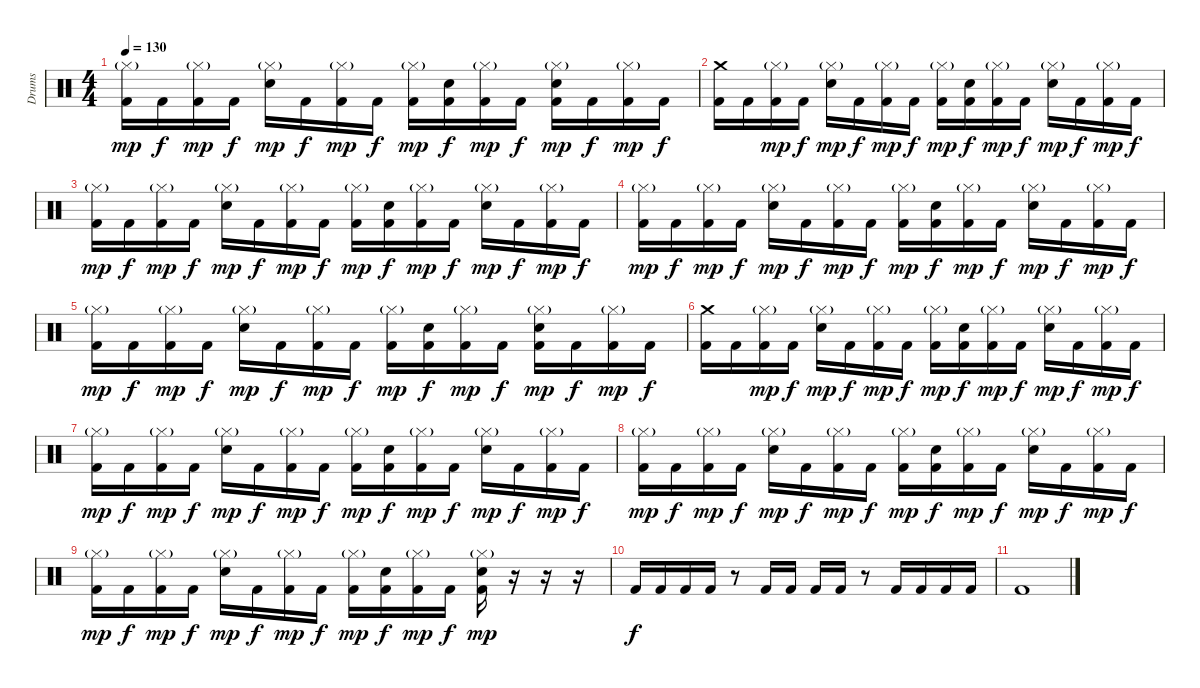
\track ("Drums" "Drums") {instrument percussion}
\staff {score}
\articulation defaults
\ts (4 4)
\tempo 130
\clef neutral
\ks c
("Hi-Hat (closed)"{g} "Kick (hit) 2").16{dy mp} "Kick (hit) 2".16{dy f} ("Hi-Hat (closed)"{g} "Kick (hit) 2").16{dy mp} "Kick (hit) 2".16{dy f} ("Snare (hit) 2" "Hi-Hat (closed)"{g}).16{dy mp} "Kick (hit) 2".16{dy f} ("Hi-Hat (closed)"{g} "Kick (hit) 2").16{dy mp} "Kick (hit) 2".16{dy f} ("Hi-Hat (closed)"{g} "Kick (hit) 2").16{dy mp} ("Snare (hit) 2" "Kick (hit) 2").16{dy f} ("Hi-Hat (closed)"{g} "Kick (hit) 2").16{dy mp} "Kick (hit) 2".16{dy f} ("Snare (hit) 2" "Hi-Hat (closed)"{g} "Kick (hit) 2").16{dy mp} "Kick (hit) 2".16{dy f} ("Hi-Hat (closed)"{g} "Kick (hit) 2").16{dy mp} "Kick (hit) 2".16{dy f} |
("Crash medium (hit)" "Kick (hit) 2").16 "Kick (hit) 2".16 ("Hi-Hat (closed)"{g} "Kick (hit) 2").16{dy mp} "Kick (hit) 2".16{dy f} ("Snare (hit) 2" "Hi-Hat (closed)"{g}).16{dy mp} "Kick (hit) 2".16{dy f} ("Hi-Hat (closed)"{g} "Kick (hit) 2").16{dy mp} "Kick (hit) 2".16{dy f} ("Hi-Hat (closed)"{g} "Kick (hit) 2").16{dy mp} ("Snare (hit) 2" "Kick (hit) 2").16{dy f} ("Hi-Hat (closed)"{g} "Kick (hit) 2").16{dy mp} "Kick (hit) 2".16{dy f} ("Snare (hit) 2" "Hi-Hat (closed)"{g}).16{dy mp} "Kick (hit) 2".16{dy f} ("Hi-Hat (closed)"{g} "Kick (hit) 2").16{dy mp} "Kick (hit) 2".16{dy f} |
("Hi-Hat (closed)"{g} "Kick (hit) 2").16{dy mp} "Kick (hit) 2".16{dy f} ("Hi-Hat (closed)"{g} "Kick (hit) 2").16{dy mp} "Kick (hit) 2".16{dy f} ("Snare (hit) 2" "Hi-Hat (closed)"{g}).16{dy mp} "Kick (hit) 2".16{dy f} ("Hi-Hat (closed)"{g} "Kick (hit) 2").16{dy mp} "Kick (hit) 2".16{dy f} ("Hi-Hat (closed)"{g} "Kick (hit) 2").16{dy mp} ("Snare (hit) 2" "Kick (hit) 2").16{dy f} ("Hi-Hat (closed)"{g} "Kick (hit) 2").16{dy mp} "Kick (hit) 2".16{dy f} ("Snare (hit) 2" "Hi-Hat (closed)"{g}).16{dy mp} "Kick (hit) 2".16{dy f} ("Hi-Hat (closed)"{g} "Kick (hit) 2").16{dy mp} "Kick (hit) 2".16{dy f} |
("Hi-Hat (closed)"{g} "Kick (hit) 2").16{dy mp} "Kick (hit) 2".16{dy f} ("Hi-Hat (closed)"{g} "Kick (hit) 2").16{dy mp} "Kick (hit) 2".16{dy f} ("Snare (hit) 2" "Hi-Hat (closed)"{g}).16{dy mp} "Kick (hit) 2".16{dy f} ("Hi-Hat (closed)"{g} "Kick (hit) 2").16{dy mp} "Kick (hit) 2".16{dy f} ("Hi-Hat (closed)"{g} "Kick (hit) 2").16{dy mp} ("Snare (hit) 2" "Kick (hit) 2").16{dy f} ("Hi-Hat (closed)"{g} "Kick (hit) 2").16{dy mp} "Kick (hit) 2".16{dy f} ("Snare (hit) 2" "Hi-Hat (closed)"{g}).16{dy mp} "Kick (hit) 2".16{dy f} ("Hi-Hat (closed)"{g} "Kick (hit) 2").16{dy mp} "Kick (hit) 2".16{dy f} |
("Hi-Hat (closed)"{g} "Kick (hit) 2").16{dy mp} "Kick (hit) 2".16{dy f} ("Hi-Hat (closed)"{g} "Kick (hit) 2").16{dy mp} "Kick (hit) 2".16{dy f} ("Snare (hit) 2" "Hi-Hat (closed)"{g}).16{dy mp} "Kick (hit) 2".16{dy f} ("Hi-Hat (closed)"{g} "Kick (hit) 2").16{dy mp} "Kick (hit) 2".16{dy f} ("Hi-Hat (closed)"{g} "Kick (hit) 2").16{dy mp} ("Snare (hit) 2" "Kick (hit) 2").16{dy f} ("Hi-Hat (closed)"{g} "Kick (hit) 2").16{dy mp} "Kick (hit) 2".16{dy f} ("Snare (hit) 2" "Hi-Hat (closed)"{g} "Kick (hit) 2").16{dy mp} "Kick (hit) 2".16{dy f} ("Hi-Hat (closed)"{g} "Kick (hit) 2").16{dy mp} "Kick (hit) 2".16{dy f} |
("Crash medium (hit)" "Kick (hit) 2").16 "Kick (hit) 2".16 ("Hi-Hat (closed)"{g} "Kick (hit) 2").16{dy mp} "Kick (hit) 2".16{dy f} ("Snare (hit) 2" "Hi-Hat (closed)"{g}).16{dy mp} "Kick (hit) 2".16{dy f} ("Hi-Hat (closed)"{g} "Kick (hit) 2").16{dy mp} "Kick (hit) 2".16{dy f} ("Hi-Hat (closed)"{g} "Kick (hit) 2").16{dy mp} ("Snare (hit) 2" "Kick (hit) 2").16{dy f} ("Hi-Hat (closed)"{g} "Kick (hit) 2").16{dy mp} "Kick (hit) 2".16{dy f} ("Snare (hit) 2" "Hi-Hat (closed)"{g}).16{dy mp} "Kick (hit) 2".16{dy f} ("Hi-Hat (closed)"{g} "Kick (hit) 2").16{dy mp} "Kick (hit) 2".16{dy f} |
("Hi-Hat (closed)"{g} "Kick (hit) 2").16{dy mp} "Kick (hit) 2".16{dy f} ("Hi-Hat (closed)"{g} "Kick (hit) 2").16{dy mp} "Kick (hit) 2".16{dy f} ("Snare (hit) 2" "Hi-Hat (closed)"{g}).16{dy mp} "Kick (hit) 2".16{dy f} ("Hi-Hat (closed)"{g} "Kick (hit) 2").16{dy mp} "Kick (hit) 2".16{dy f} ("Hi-Hat (closed)"{g} "Kick (hit) 2").16{dy mp} ("Snare (hit) 2" "Kick (hit) 2").16{dy f} ("Hi-Hat (closed)"{g} "Kick (hit) 2").16{dy mp} "Kick (hit) 2".16{dy f} ("Snare (hit) 2" "Hi-Hat (closed)"{g}).16{dy mp} "Kick (hit) 2".16{dy f} ("Hi-Hat (closed)"{g} "Kick (hit) 2").16{dy mp} "Kick (hit) 2".16{dy f} |
("Hi-Hat (closed)"{g} "Kick (hit) 2").16{dy mp} "Kick (hit) 2".16{dy f} ("Hi-Hat (closed)"{g} "Kick (hit) 2").16{dy mp} "Kick (hit) 2".16{dy f} ("Snare (hit) 2" "Hi-Hat (closed)"{g}).16{dy mp} "Kick (hit) 2".16{dy f} ("Hi-Hat (closed)"{g} "Kick (hit) 2").16{dy mp} "Kick (hit) 2".16{dy f} ("Hi-Hat (closed)"{g} "Kick (hit) 2").16{dy mp} ("Snare (hit) 2" "Kick (hit) 2").16{dy f} ("Hi-Hat (closed)"{g} "Kick (hit) 2").16{dy mp} "Kick (hit) 2".16{dy f} ("Snare (hit) 2" "Hi-Hat (closed)"{g}).16{dy mp} "Kick (hit) 2".16{dy f} ("Hi-Hat (closed)"{g} "Kick (hit) 2").16{dy mp} "Kick (hit) 2".16{dy f} |
("Hi-Hat (closed)"{g} "Kick (hit) 2").16{dy mp} "Kick (hit) 2".16{dy f} ("Hi-Hat (closed)"{g} "Kick (hit) 2").16{dy mp} "Kick (hit) 2".16{dy f} ("Snare (hit) 2" "Hi-Hat (closed)"{g}).16{dy mp} "Kick (hit) 2".16{dy f} ("Hi-Hat (closed)"{g} "Kick (hit) 2").16{dy mp} "Kick (hit) 2".16{dy f} ("Hi-Hat (closed)"{g} "Kick (hit) 2").16{dy mp} ("Snare (hit) 2" "Kick (hit) 2").16{dy f} ("Hi-Hat (closed)"{g} "Kick (hit) 2").16{dy mp} "Kick (hit) 2".16{dy f} ("Snare (hit) 2" "Hi-Hat (closed)"{g} "Kick (hit) 2").16{dy mp} r.16 r.16 r.16 |
"Kick (hit) 2".16{dy f} "Kick (hit) 2".16 "Kick (hit) 2".16 "Kick (hit) 2".16 r.8 "Kick (hit) 2".16 "Kick (hit) 2".16 "Kick (hit) 2".16 "Kick (hit) 2".16 r.8 "Kick (hit) 2".16 "Kick (hit) 2".16 "Kick (hit) 2".16 "Kick (hit) 2".16 |
"Kick (hit) 2".1
